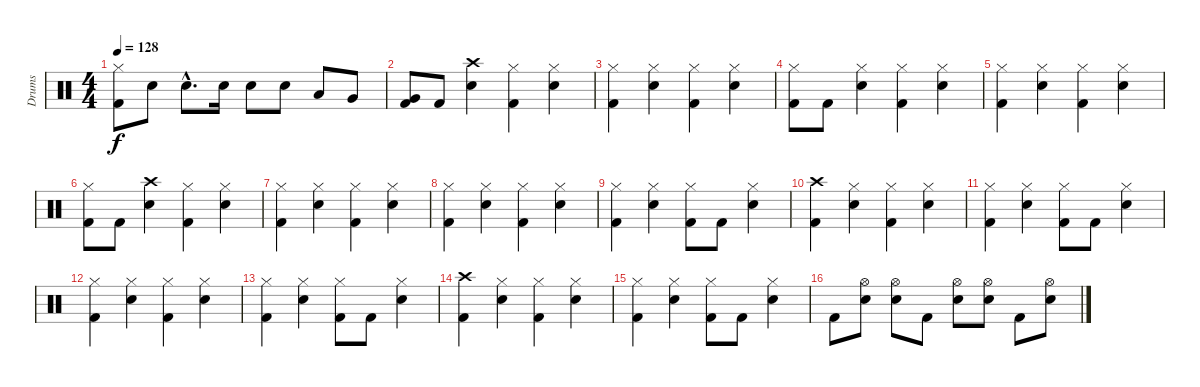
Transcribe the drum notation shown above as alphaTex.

\track ("Drums" "Drums") {instrument percussion}
\staff {score}
\articulation defaults
\ts (4 4)
\tempo 128
\clef neutral
\ks c
("Hi-Hat (closed)" "Kick (hit) 2").8{dy f} "Electric Snare (hit)".8 "Electric Snare (hit)"{hac}.8{d} "Electric Snare (hit)".16 "Electric Snare (hit)".8 "Electric Snare (hit)".8 "Low Tom (hit)".8 "Very Low Tom (hit)".8 |
("Very Low Tom (hit)" "Kick (hit) 2").8 "Kick (hit) 2".8 ("Crash high (hit)" "Electric Snare (hit)").4 ("Hi-Hat (closed)" "Kick (hit) 2").4 ("Hi-Hat (closed)" "Electric Snare (hit)").4 |
("Hi-Hat (closed)" "Kick (hit) 2").4 ("Hi-Hat (closed)" "Electric Snare (hit)").4 ("Hi-Hat (closed)" "Kick (hit) 2").4 ("Hi-Hat (closed)" "Electric Snare (hit)").4 |
("Hi-Hat (closed)" "Kick (hit) 2").8 "Kick (hit) 2".8 ("Hi-Hat (closed)" "Electric Snare (hit)").4 ("Hi-Hat (closed)" "Kick (hit) 2").4 ("Hi-Hat (closed)" "Electric Snare (hit)").4 |
("Hi-Hat (closed)" "Kick (hit) 2").4 ("Hi-Hat (closed)" "Electric Snare (hit)").4 ("Hi-Hat (closed)" "Kick (hit) 2").4 ("Hi-Hat (closed)" "Electric Snare (hit)").4 |
("Hi-Hat (closed)" "Kick (hit) 2").8 "Kick (hit) 2".8 ("Crash high (hit)" "Electric Snare (hit)").4 ("Hi-Hat (closed)" "Kick (hit) 2").4 ("Hi-Hat (closed)" "Electric Snare (hit)").4 |
("Hi-Hat (closed)" "Kick (hit) 2").4 ("Hi-Hat (closed)" "Electric Snare (hit)").4 ("Hi-Hat (closed)" "Kick (hit) 2").4 ("Hi-Hat (closed)" "Electric Snare (hit)").4 |
("Hi-Hat (closed)" "Kick (hit) 2").4 ("Hi-Hat (closed)" "Electric Snare (hit)").4 ("Hi-Hat (closed)" "Kick (hit) 2").4 ("Hi-Hat (closed)" "Electric Snare (hit)").4 |
("Hi-Hat (closed)" "Kick (hit) 2").4 ("Hi-Hat (closed)" "Electric Snare (hit)").4 ("Hi-Hat (closed)" "Kick (hit) 2").8 "Kick (hit) 2".8 ("Hi-Hat (closed)" "Electric Snare (hit)").4 |
("Crash high (hit)" "Kick (hit) 2").4 ("Hi-Hat (closed)" "Electric Snare (hit)").4 ("Hi-Hat (closed)" "Kick (hit) 2").4 ("Hi-Hat (closed)" "Electric Snare (hit)").4 |
("Hi-Hat (closed)" "Kick (hit) 2").4 ("Hi-Hat (closed)" "Electric Snare (hit)").4 ("Hi-Hat (closed)" "Kick (hit) 2").8 "Kick (hit) 2".8 ("Hi-Hat (closed)" "Electric Snare (hit)").4 |
("Hi-Hat (closed)" "Kick (hit) 2").4 ("Hi-Hat (closed)" "Electric Snare (hit)").4 ("Hi-Hat (closed)" "Kick (hit) 2").4 ("Hi-Hat (closed)" "Electric Snare (hit)").4 |
("Hi-Hat (closed)" "Kick (hit) 2").4 ("Hi-Hat (closed)" "Electric Snare (hit)").4 ("Hi-Hat (closed)" "Kick (hit) 2").8 "Kick (hit) 2".8 ("Hi-Hat (closed)" "Electric Snare (hit)").4 |
("Crash high (hit)" "Kick (hit) 2").4 ("Hi-Hat (closed)" "Electric Snare (hit)").4 ("Hi-Hat (closed)" "Kick (hit) 2").4 ("Hi-Hat (closed)" "Electric Snare (hit)").4 |
("Hi-Hat (closed)" "Kick (hit) 2").4 ("Hi-Hat (closed)" "Electric Snare (hit)").4 ("Hi-Hat (closed)" "Kick (hit) 2").8 "Kick (hit) 2".8 ("Hi-Hat (closed)" "Electric Snare (hit)").4 |
"Kick (hit) 2".8 ("Hi-Hat (open)" "Electric Snare (hit)").8 ("Hi-Hat (open)" "Electric Snare (hit)").8 "Kick (hit) 2".8 ("Hi-Hat (open)" "Electric Snare (hit)").8 ("Hi-Hat (open)" "Electric Snare (hit)").8 "Kick (hit) 2".8 ("Hi-Hat (open)" "Electric Snare (hit)").8
